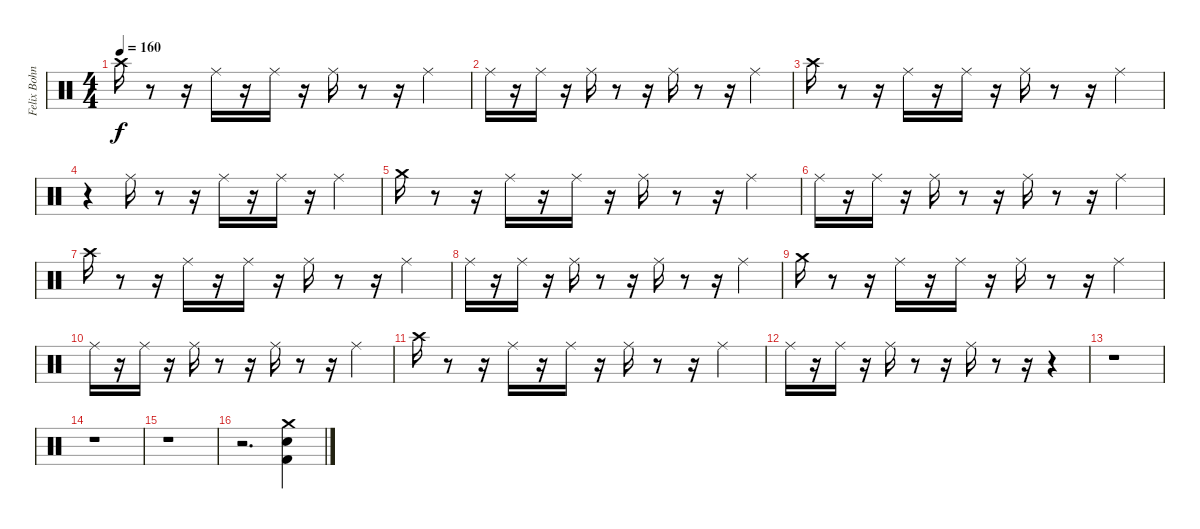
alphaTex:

\track ("Felix Bohnke" "Felix Bohn") {instrument percussion}
\staff {score}
\articulation defaults
\ts (4 4)
\tempo 160
\clef neutral
\ks c "Crash high (hit)".16{dy f}
r.8 r.16 "Ride (middle)".16 r.16 "Ride (middle)".16 r.16 "Ride (middle)".16 r.8 r.16 "Ride (middle)".4 |
"Ride (middle)".16 r.16 "Ride (middle)".16 r.16 "Ride (middle)".16 r.8 r.16 "Ride (middle)".16 r.8 r.16 "Ride (middle)".4 |
"Crash high (hit)".16 r.8 r.16 "Ride (middle)".16 r.16 "Ride (middle)".16 r.16 "Ride (middle)".16 r.8 r.16 "Ride (middle)".4 |
r.4 "Ride (middle)".16 r.8 r.16 "Ride (middle)".16 r.16 "Ride (middle)".16 r.16 "Ride (middle)".4 |
"Crash medium (hit)".16 r.8 r.16 "Ride (middle)".16 r.16 "Ride (middle)".16 r.16 "Ride (middle)".16 r.8 r.16 "Ride (middle)".4 |
"Ride (middle)".16 r.16 "Ride (middle)".16 r.16 "Ride (middle)".16 r.8 r.16 "Ride (middle)".16 r.8 r.16 "Ride (middle)".4 |
"Crash high (hit)".16 r.8 r.16 "Ride (middle)".16 r.16 "Ride (middle)".16 r.16 "Ride (middle)".16 r.8 r.16 "Ride (middle)".4 |
"Ride (middle)".16 r.16 "Ride (middle)".16 r.16 "Ride (middle)".16 r.8 r.16 "Ride (middle)".16 r.8 r.16 "Ride (middle)".4 |
"Crash medium (hit)".16 r.8 r.16 "Ride (middle)".16 r.16 "Ride (middle)".16 r.16 "Ride (middle)".16 r.8 r.16 "Ride (middle)".4 |
"Ride (middle)".16 r.16 "Ride (middle)".16 r.16 "Ride (middle)".16 r.8 r.16 "Ride (middle)".16 r.8 r.16 "Ride (middle)".4 |
"Crash high (hit)".16 r.8 r.16 "Ride (middle)".16 r.16 "Ride (middle)".16 r.16 "Ride (middle)".16 r.8 r.16 "Ride (middle)".4 |
"Ride (middle)".16 r.16 "Ride (middle)".16 r.16 "Ride (middle)".16 r.8 r.16 "Ride (middle)".16 r.8 r.16 r.4 |
r.1 |
r.1 |
r.1 |
r.2{d} ("Crash medium (hit)" "Electric Snare (hit)" "Kick (hit) 2").4
